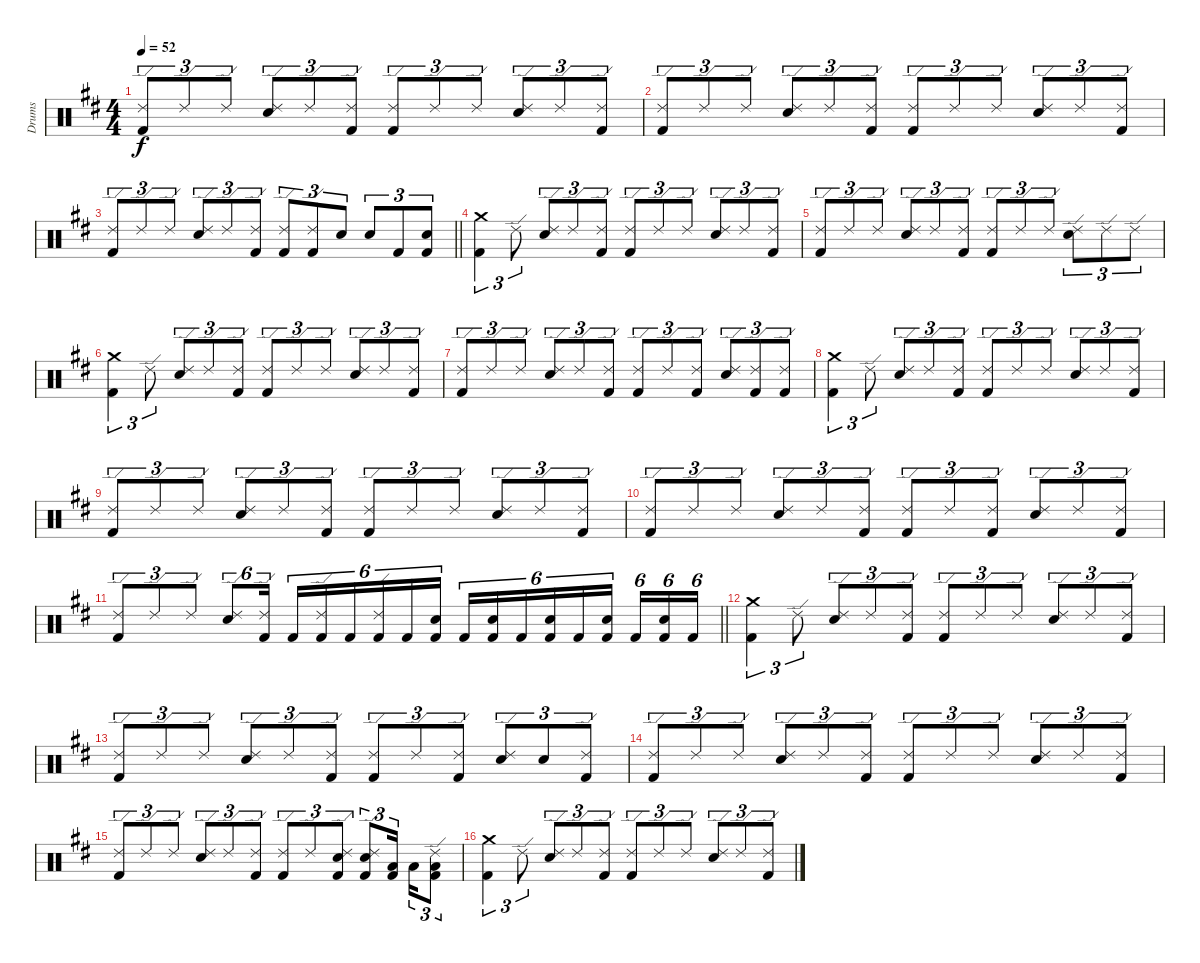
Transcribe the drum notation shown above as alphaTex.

\track ("Drums" "Drums") {instrument percussion}
\staff {score}
\articulation defaults
\ts (4 4)
\tempo 52
\clef neutral
\ks d
("Ride (edge) 2" "Kick (hit) 2").8{tu (3 2) dy f} "Ride (edge) 2".8{tu (3 2)} "Ride (edge) 2".8{tu (3 2)} ("Ride (edge) 2" "Snare (hit) 2").8{tu (3 2)} "Ride (edge) 2".8{tu (3 2)} ("Ride (edge) 2" "Kick (hit) 2").8{tu (3 2)} ("Ride (edge) 2" "Kick (hit) 2").8{tu (3 2)} "Ride (edge) 2".8{tu (3 2)} "Ride (edge) 2".8{tu (3 2)} ("Ride (edge) 2" "Snare (hit) 2").8{tu (3 2)} "Ride (edge) 2".8{tu (3 2)} ("Ride (edge) 2" "Kick (hit) 2").8{tu (3 2)} |
("Ride (edge) 2" "Kick (hit) 2").8{tu (3 2)} "Ride (edge) 2".8{tu (3 2)} "Ride (edge) 2".8{tu (3 2)} ("Ride (edge) 2" "Snare (hit) 2").8{tu (3 2)} "Ride (edge) 2".8{tu (3 2)} ("Ride (edge) 2" "Kick (hit) 2").8{tu (3 2)} ("Ride (edge) 2" "Kick (hit) 2").8{tu (3 2)} "Ride (edge) 2".8{tu (3 2)} "Ride (edge) 2".8{tu (3 2)} ("Ride (edge) 2" "Snare (hit) 2").8{tu (3 2)} "Ride (edge) 2".8{tu (3 2)} ("Ride (edge) 2" "Kick (hit) 2").8{tu (3 2)} |
\barLineRight lightlight
("Ride (edge) 2" "Kick (hit) 2").8{tu (3 2)} "Ride (edge) 2".8{tu (3 2)} "Ride (edge) 2".8{tu (3 2)} ("Ride (edge) 2" "Snare (hit) 2").8{tu (3 2)} "Ride (edge) 2".8{tu (3 2)} ("Ride (edge) 2" "Kick (hit) 2").8{tu (3 2)} ("Ride (edge) 2" "Kick (hit) 2").8{tu (3 2)} ("Ride (edge) 2" "Kick (hit) 2").8{tu (3 2)} "Snare (hit) 2".8{tu (3 2)} "Snare (hit) 2".8{tu (3 2)} "Kick (hit) 2".8{tu (3 2)} ("Snare (hit) 2" "Kick (hit) 2").8{tu (3 2)} |
("Crash medium (hit)" "Kick (hit) 2").4{tu (3 2)} "Ride (edge) 2".8{tu (3 2)} ("Ride (edge) 2" "Snare (hit) 2").8{tu (3 2)} "Ride (edge) 2".8{tu (3 2)} ("Ride (edge) 2" "Kick (hit) 2").8{tu (3 2)} ("Ride (edge) 2" "Kick (hit) 2").8{tu (3 2)} "Ride (edge) 2".8{tu (3 2)} "Ride (edge) 2".8{tu (3 2)} ("Ride (edge) 2" "Snare (hit) 2").8{tu (3 2)} "Ride (edge) 2".8{tu (3 2)} ("Ride (edge) 2" "Kick (hit) 2").8{tu (3 2)} |
("Ride (edge) 2" "Kick (hit) 2").8{tu (3 2)} "Ride (edge) 2".8{tu (3 2)} "Ride (edge) 2".8{tu (3 2)} ("Ride (edge) 2" "Snare (hit) 2").8{tu (3 2)} "Ride (edge) 2".8{tu (3 2)} ("Ride (edge) 2" "Kick (hit) 2").8{tu (3 2)} ("Ride (edge) 2" "Kick (hit) 2").8{tu (3 2)} "Ride (edge) 2".8{tu (3 2)} "Ride (edge) 2".8{tu (3 2)} ("Ride (edge) 2" "Snare (hit) 2").8{tu (3 2)} "Ride (edge) 2".8{tu (3 2)} "Ride (edge) 2".8{tu (3 2)} |
("Crash medium (hit)" "Kick (hit) 2").4{tu (3 2)} "Ride (edge) 2".8{tu (3 2)} ("Ride (edge) 2" "Snare (hit) 2").8{tu (3 2)} "Ride (edge) 2".8{tu (3 2)} ("Ride (edge) 2" "Kick (hit) 2").8{tu (3 2)} ("Ride (edge) 2" "Kick (hit) 2").8{tu (3 2)} "Ride (edge) 2".8{tu (3 2)} "Ride (edge) 2".8{tu (3 2)} ("Ride (edge) 2" "Snare (hit) 2").8{tu (3 2)} "Ride (edge) 2".8{tu (3 2)} ("Ride (edge) 2" "Kick (hit) 2").8{tu (3 2)} |
("Ride (edge) 2" "Kick (hit) 2").8{tu (3 2)} "Ride (edge) 2".8{tu (3 2)} "Ride (edge) 2".8{tu (3 2)} ("Ride (edge) 2" "Snare (hit) 2").8{tu (3 2)} "Ride (edge) 2".8{tu (3 2)} ("Ride (edge) 2" "Kick (hit) 2").8{tu (3 2)} ("Ride (edge) 2" "Kick (hit) 2").8{tu (3 2)} "Ride (edge) 2".8{tu (3 2)} ("Ride (edge) 2" "Kick (hit) 2").8{tu (3 2)} ("Ride (edge) 2" "Snare (hit) 2").8{tu (3 2)} ("Ride (edge) 2" "Kick (hit) 2").8{tu (3 2)} ("Ride (edge) 2" "Kick (hit) 2").8{tu (3 2)} |
("Crash medium (hit)" "Kick (hit) 2").4{tu (3 2)} "Ride (edge) 2".8{tu (3 2)} ("Ride (edge) 2" "Snare (hit) 2").8{tu (3 2)} "Ride (edge) 2".8{tu (3 2)} ("Ride (edge) 2" "Kick (hit) 2").8{tu (3 2)} ("Ride (edge) 2" "Kick (hit) 2").8{tu (3 2)} "Ride (edge) 2".8{tu (3 2)} "Ride (edge) 2".8{tu (3 2)} ("Ride (edge) 2" "Snare (hit) 2").8{tu (3 2)} "Ride (edge) 2".8{tu (3 2)} ("Ride (edge) 2" "Kick (hit) 2").8{tu (3 2)} |
("Ride (edge) 2" "Kick (hit) 2").8{tu (3 2)} "Ride (edge) 2".8{tu (3 2)} "Ride (edge) 2".8{tu (3 2)} ("Ride (edge) 2" "Snare (hit) 2").8{tu (3 2)} "Ride (edge) 2".8{tu (3 2)} ("Ride (edge) 2" "Kick (hit) 2").8{tu (3 2)} ("Ride (edge) 2" "Kick (hit) 2").8{tu (3 2)} "Ride (edge) 2".8{tu (3 2)} "Ride (edge) 2".8{tu (3 2)} ("Ride (edge) 2" "Snare (hit) 2").8{tu (3 2)} "Ride (edge) 2".8{tu (3 2)} ("Ride (edge) 2" "Kick (hit) 2").8{tu (3 2)} |
("Ride (edge) 2" "Kick (hit) 2").8{tu (3 2)} "Ride (edge) 2".8{tu (3 2)} "Ride (edge) 2".8{tu (3 2)} ("Ride (edge) 2" "Snare (hit) 2").8{tu (3 2)} "Ride (edge) 2".8{tu (3 2)} ("Ride (edge) 2" "Kick (hit) 2").8{tu (3 2)} ("Ride (edge) 2" "Kick (hit) 2").8{tu (3 2)} "Ride (edge) 2".8{tu (3 2)} ("Ride (edge) 2" "Kick (hit) 2").8{tu (3 2)} ("Ride (edge) 2" "Snare (hit) 2").8{tu (3 2)} "Ride (edge) 2".8{tu (3 2)} ("Ride (edge) 2" "Kick (hit) 2").8{tu (3 2)} |
\barLineRight lightlight
("Ride (edge) 2" "Kick (hit) 2").8{tu (3 2)} "Ride (edge) 2".8{tu (3 2)} "Ride (edge) 2".8{tu (3 2)} ("Ride (edge) 2" "Snare (hit) 2").8{tu (6 4)} ("Ride (edge) 2" "Kick (hit) 2").16{tu (6 4)} "Kick (hit) 2".16{tu (6 4)} ("Ride (edge) 2" "Kick (hit) 2").16{tu (6 4)} "Kick (hit) 2".16{tu (6 4)} ("Ride (edge) 2" "Kick (hit) 2").16{tu (6 4)} "Kick (hit) 2".16{tu (6 4)} ("Snare (hit) 2" "Kick (hit) 2").16{tu (6 4)} "Kick (hit) 2".16{tu (6 4)} ("Snare (hit) 2" "Kick (hit) 2").16{tu (6 4)} "Kick (hit) 2".16{tu (6 4)} ("Snare (hit) 2" "Kick (hit) 2").16{tu (6 4)} "Kick (hit) 2".16{tu (6 4)} ("Snare (hit) 2" "Kick (hit) 2").16{tu (6 4)} "Kick (hit) 2".16{tu (6 4)} ("Snare (hit) 2" "Kick (hit) 2").16{tu (6 4)} "Kick (hit) 2".16{tu (6 4)} |
("Crash medium (hit)" "Kick (hit) 2").4{tu (3 2)} "Ride (edge) 2".8{tu (3 2)} ("Ride (edge) 2" "Snare (hit) 2").8{tu (3 2)} "Ride (edge) 2".8{tu (3 2)} ("Ride (edge) 2" "Kick (hit) 2").8{tu (3 2)} ("Ride (edge) 2" "Kick (hit) 2").8{tu (3 2)} "Ride (edge) 2".8{tu (3 2)} "Ride (edge) 2".8{tu (3 2)} ("Ride (edge) 2" "Snare (hit) 2").8{tu (3 2)} "Ride (edge) 2".8{tu (3 2)} ("Ride (edge) 2" "Kick (hit) 2").8{tu (3 2)} |
("Ride (edge) 2" "Kick (hit) 2").8{tu (3 2)} "Ride (edge) 2".8{tu (3 2)} "Ride (edge) 2".8{tu (3 2)} ("Ride (edge) 2" "Snare (hit) 2").8{tu (3 2)} "Ride (edge) 2".8{tu (3 2)} ("Ride (edge) 2" "Kick (hit) 2").8{tu (3 2)} ("Ride (edge) 2" "Kick (hit) 2").8{tu (3 2)} "Ride (edge) 2".8{tu (3 2)} ("Ride (edge) 2" "Kick (hit) 2").8{tu (3 2)} ("Ride (edge) 2" "Snare (hit) 2").8{tu (3 2)} "Snare (hit) 2".8{tu (3 2)} ("Ride (edge) 2" "Kick (hit) 2").8{tu (3 2)} |
("Ride (edge) 2" "Kick (hit) 2").8{tu (3 2)} "Ride (edge) 2".8{tu (3 2)} "Ride (edge) 2".8{tu (3 2)} ("Ride (edge) 2" "Snare (hit) 2").8{tu (3 2)} "Ride (edge) 2".8{tu (3 2)} ("Ride (edge) 2" "Kick (hit) 2").8{tu (3 2)} ("Ride (edge) 2" "Kick (hit) 2").8{tu (3 2)} "Ride (edge) 2".8{tu (3 2)} "Ride (edge) 2".8{tu (3 2)} ("Ride (edge) 2" "Snare (hit) 2").8{tu (3 2)} "Ride (edge) 2".8{tu (3 2)} ("Ride (edge) 2" "Kick (hit) 2").8{tu (3 2)} |
("Ride (edge) 2" "Kick (hit) 2").8{tu (3 2)} "Ride (edge) 2".8{tu (3 2)} "Ride (edge) 2".8{tu (3 2)} ("Ride (edge) 2" "Snare (hit) 2").8{tu (3 2)} "Ride (edge) 2".8{tu (3 2)} ("Ride (edge) 2" "Kick (hit) 2").8{tu (3 2)} ("Ride (edge) 2" "Kick (hit) 2").8{tu (3 2)} "Ride (edge) 2".8{tu (3 2)} ("Ride (edge) 2" "Snare (hit) 2" "Kick (hit) 2").8{tu (3 2)} ("Ride (edge) 2" "Snare (hit) 2" "Kick (hit) 2").8{tu (3 2)} ("Low Tom (hit)" "Kick (hit) 2").16{tu (3 2)} "Low Tom (hit)".16{tu (3 2)} ("Ride (edge) 2" "Low Tom (hit)" "Kick (hit) 2").8{tu (3 2)} |
("Crash medium (hit)" "Kick (hit) 2").4{tu (3 2)} "Ride (edge) 2".8{tu (3 2)} ("Ride (edge) 2" "Snare (hit) 2").8{tu (3 2)} "Ride (edge) 2".8{tu (3 2)} ("Ride (edge) 2" "Kick (hit) 2").8{tu (3 2)} ("Ride (edge) 2" "Kick (hit) 2").8{tu (3 2)} "Ride (edge) 2".8{tu (3 2)} "Ride (edge) 2".8{tu (3 2)} ("Ride (edge) 2" "Snare (hit) 2").8{tu (3 2)} "Ride (edge) 2".8{tu (3 2)} ("Ride (edge) 2" "Kick (hit) 2").8{tu (3 2)}
